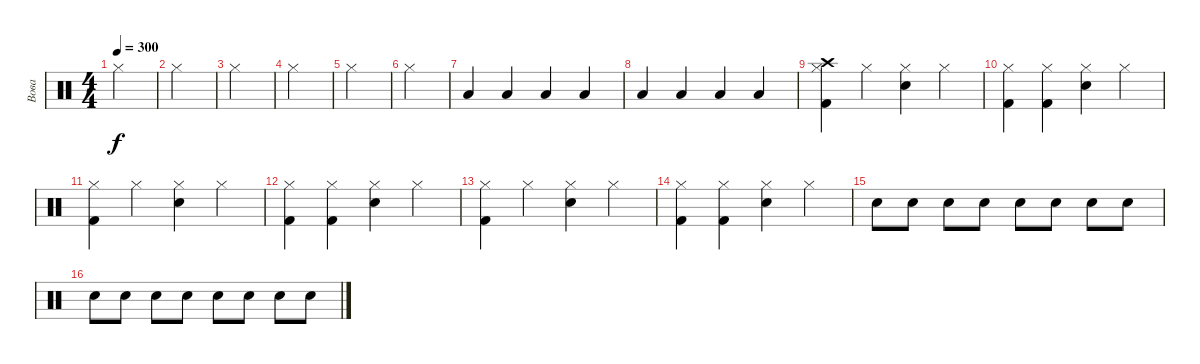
\track ("Вова" "Вова") {instrument percussion}
\staff {score}
\articulation defaults
\ts (4 4)
\tempo 300
\clef neutral
\ks c "Hi-Hat (closed)".4{dy f}
|
"Hi-Hat (closed)".4 |
"Hi-Hat (closed)".4 |
"Hi-Hat (closed)".4 |
"Hi-Hat (closed)".4 |
"Hi-Hat (closed)".4 |
"Low Tom (hit)".4 "Low Tom (hit)".4 "Low Tom (hit)".4 "Low Tom (hit)".4 |
"Low Tom (hit)".4 "Low Tom (hit)".4 "Low Tom (hit)".4 "Low Tom (hit)".4 |
("Hi-Hat (closed)" "Crash high (hit)" "Kick (hit) 2").4 "Hi-Hat (closed)".4 ("Hi-Hat (closed)" "Snare (hit) 2").4 "Hi-Hat (closed)".4 |
("Hi-Hat (closed)" "Kick (hit) 2").4 ("Hi-Hat (closed)" "Kick (hit) 2").4 ("Hi-Hat (closed)" "Snare (hit) 2").4 "Hi-Hat (closed)".4 |
("Hi-Hat (closed)" "Kick (hit) 2").4 "Hi-Hat (closed)".4 ("Hi-Hat (closed)" "Snare (hit) 2").4 "Hi-Hat (closed)".4 |
("Hi-Hat (closed)" "Kick (hit) 2").4 ("Hi-Hat (closed)" "Kick (hit) 2").4 ("Hi-Hat (closed)" "Snare (hit) 2").4 "Hi-Hat (closed)".4 |
("Hi-Hat (closed)" "Kick (hit) 2").4 "Hi-Hat (closed)".4 ("Hi-Hat (closed)" "Snare (hit) 2").4 "Hi-Hat (closed)".4 |
("Hi-Hat (closed)" "Kick (hit) 2").4 ("Hi-Hat (closed)" "Kick (hit) 2").4 ("Hi-Hat (closed)" "Snare (hit) 2").4 "Hi-Hat (closed)".4 |
"Snare (hit) 2".8 "Snare (hit) 2".8 "Snare (hit) 2".8 "Snare (hit) 2".8 "Snare (hit) 2".8 "Snare (hit) 2".8 "Snare (hit) 2".8 "Snare (hit) 2".8 |
"Snare (hit) 2".8 "Snare (hit) 2".8 "Snare (hit) 2".8 "Snare (hit) 2".8 "Snare (hit) 2".8 "Snare (hit) 2".8 "Snare (hit) 2".8 "Snare (hit) 2".8
